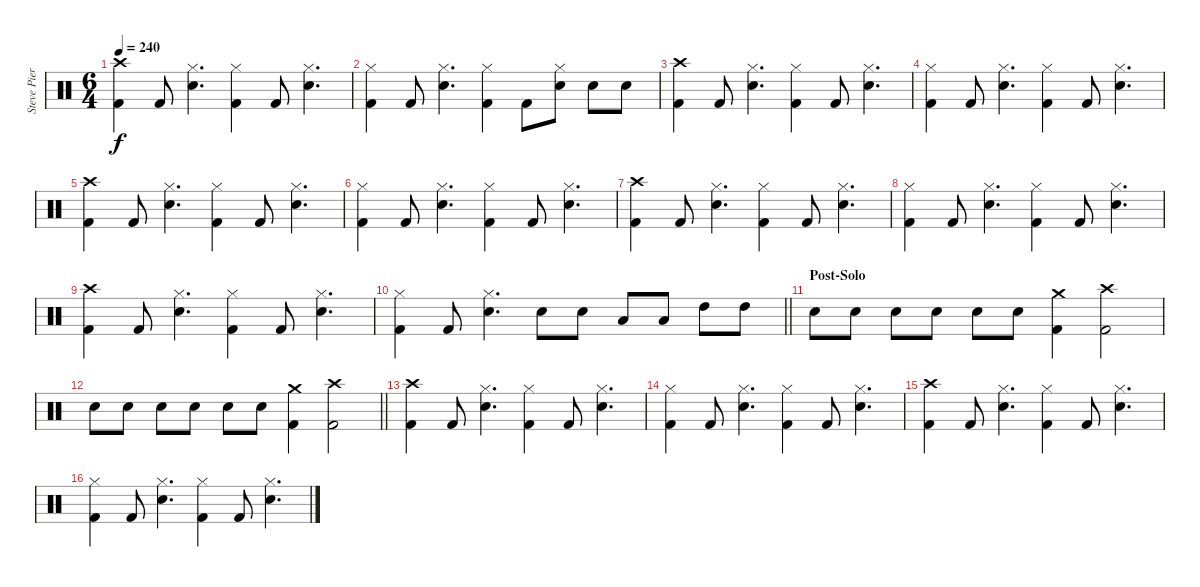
\track ("Steve Pierce" "Steve Pier") {instrument percussion}
\staff {score}
\articulation defaults
\ts (6 4)
\tempo 240
\clef neutral
\ks c
("Crash high (hit)" "Kick (hit) 2").4{dy f} "Kick (hit) 2".8 ("Hi-Hat (closed)" "Snare (hit) 2").4{d} ("Hi-Hat (closed)" "Kick (hit) 2").4 "Kick (hit) 2".8 ("Hi-Hat (closed)" "Snare (hit) 2").4{d} |
("Hi-Hat (closed)" "Kick (hit) 2").4 "Kick (hit) 2".8 ("Hi-Hat (closed)" "Snare (hit) 2").4{d} ("Hi-Hat (closed)" "Kick (hit) 2").4 "Kick (hit) 2".8 ("Hi-Hat (closed)" "Snare (hit) 2").8 "Snare (hit) 2".8 "Snare (hit) 2".8 |
("Crash high (hit)" "Kick (hit) 2").4 "Kick (hit) 2".8 ("Hi-Hat (closed)" "Snare (hit) 2").4{d} ("Hi-Hat (closed)" "Kick (hit) 2").4 "Kick (hit) 2".8 ("Hi-Hat (closed)" "Snare (hit) 2").4{d} |
("Hi-Hat (closed)" "Kick (hit) 2").4 "Kick (hit) 2".8 ("Hi-Hat (closed)" "Snare (hit) 2").4{d} ("Hi-Hat (closed)" "Kick (hit) 2").4 "Kick (hit) 2".8 ("Hi-Hat (closed)" "Snare (hit) 2").4{d} |
("Crash high (hit)" "Kick (hit) 2").4 "Kick (hit) 2".8 ("Hi-Hat (closed)" "Snare (hit) 2").4{d} ("Hi-Hat (closed)" "Kick (hit) 2").4 "Kick (hit) 2".8 ("Hi-Hat (closed)" "Snare (hit) 2").4{d} |
("Hi-Hat (closed)" "Kick (hit) 2").4 "Kick (hit) 2".8 ("Hi-Hat (closed)" "Snare (hit) 2").4{d} ("Hi-Hat (closed)" "Kick (hit) 2").4 "Kick (hit) 2".8 ("Hi-Hat (closed)" "Snare (hit) 2").4{d} |
("Crash high (hit)" "Kick (hit) 2").4 "Kick (hit) 2".8 ("Hi-Hat (closed)" "Snare (hit) 2").4{d} ("Hi-Hat (closed)" "Kick (hit) 2").4 "Kick (hit) 2".8 ("Hi-Hat (closed)" "Snare (hit) 2").4{d} |
("Hi-Hat (closed)" "Kick (hit) 2").4 "Kick (hit) 2".8 ("Hi-Hat (closed)" "Snare (hit) 2").4{d} ("Hi-Hat (closed)" "Kick (hit) 2").4 "Kick (hit) 2".8 ("Hi-Hat (closed)" "Snare (hit) 2").4{d} |
("Crash high (hit)" "Kick (hit) 2").4 "Kick (hit) 2".8 ("Hi-Hat (closed)" "Snare (hit) 2").4{d} ("Hi-Hat (closed)" "Kick (hit) 2").4 "Kick (hit) 2".8 ("Hi-Hat (closed)" "Snare (hit) 2").4{d} |
\barLineRight lightlight
("Hi-Hat (closed)" "Kick (hit) 2").4 "Kick (hit) 2".8 ("Hi-Hat (closed)" "Snare (hit) 2").4{d} "Snare (hit) 2".8 "Snare (hit) 2".8 "Low Tom (hit)".8 "Low Tom (hit)".8 "High Tom (hit)".8 "High Tom (hit)".8 |
\section ("" "Post-Solo")
"Snare (hit) 2".8 "Snare (hit) 2".8 "Snare (hit) 2".8 "Snare (hit) 2".8 "Snare (hit) 2".8 "Snare (hit) 2".8 ("Crash medium (hit)" "Kick (hit) 2").4 ("Crash high (hit)" "Kick (hit) 2").2 |
\barLineRight lightlight "Snare (hit) 2".8 "Snare (hit) 2".8 "Snare (hit) 2".8 "Snare (hit) 2".8 "Snare (hit) 2".8 "Snare (hit) 2".8
("Crash medium (hit)" "Kick (hit) 2").4 ("Crash high (hit)" "Kick (hit) 2").2 |
("Crash high (hit)" "Kick (hit) 2").4 "Kick (hit) 2".8 ("Hi-Hat (closed)" "Snare (hit) 2").4{d} ("Hi-Hat (closed)" "Kick (hit) 2").4 "Kick (hit) 2".8 ("Hi-Hat (closed)" "Snare (hit) 2").4{d} |
("Hi-Hat (closed)" "Kick (hit) 2").4 "Kick (hit) 2".8 ("Hi-Hat (closed)" "Snare (hit) 2").4{d} ("Hi-Hat (closed)" "Kick (hit) 2").4 "Kick (hit) 2".8 ("Hi-Hat (closed)" "Snare (hit) 2").4{d} |
("Crash high (hit)" "Kick (hit) 2").4 "Kick (hit) 2".8 ("Hi-Hat (closed)" "Snare (hit) 2").4{d} ("Hi-Hat (closed)" "Kick (hit) 2").4 "Kick (hit) 2".8 ("Hi-Hat (closed)" "Snare (hit) 2").4{d} |
("Hi-Hat (closed)" "Kick (hit) 2").4 "Kick (hit) 2".8 ("Hi-Hat (closed)" "Snare (hit) 2").4{d} ("Hi-Hat (closed)" "Kick (hit) 2").4 "Kick (hit) 2".8 ("Hi-Hat (closed)" "Snare (hit) 2").4{d}
